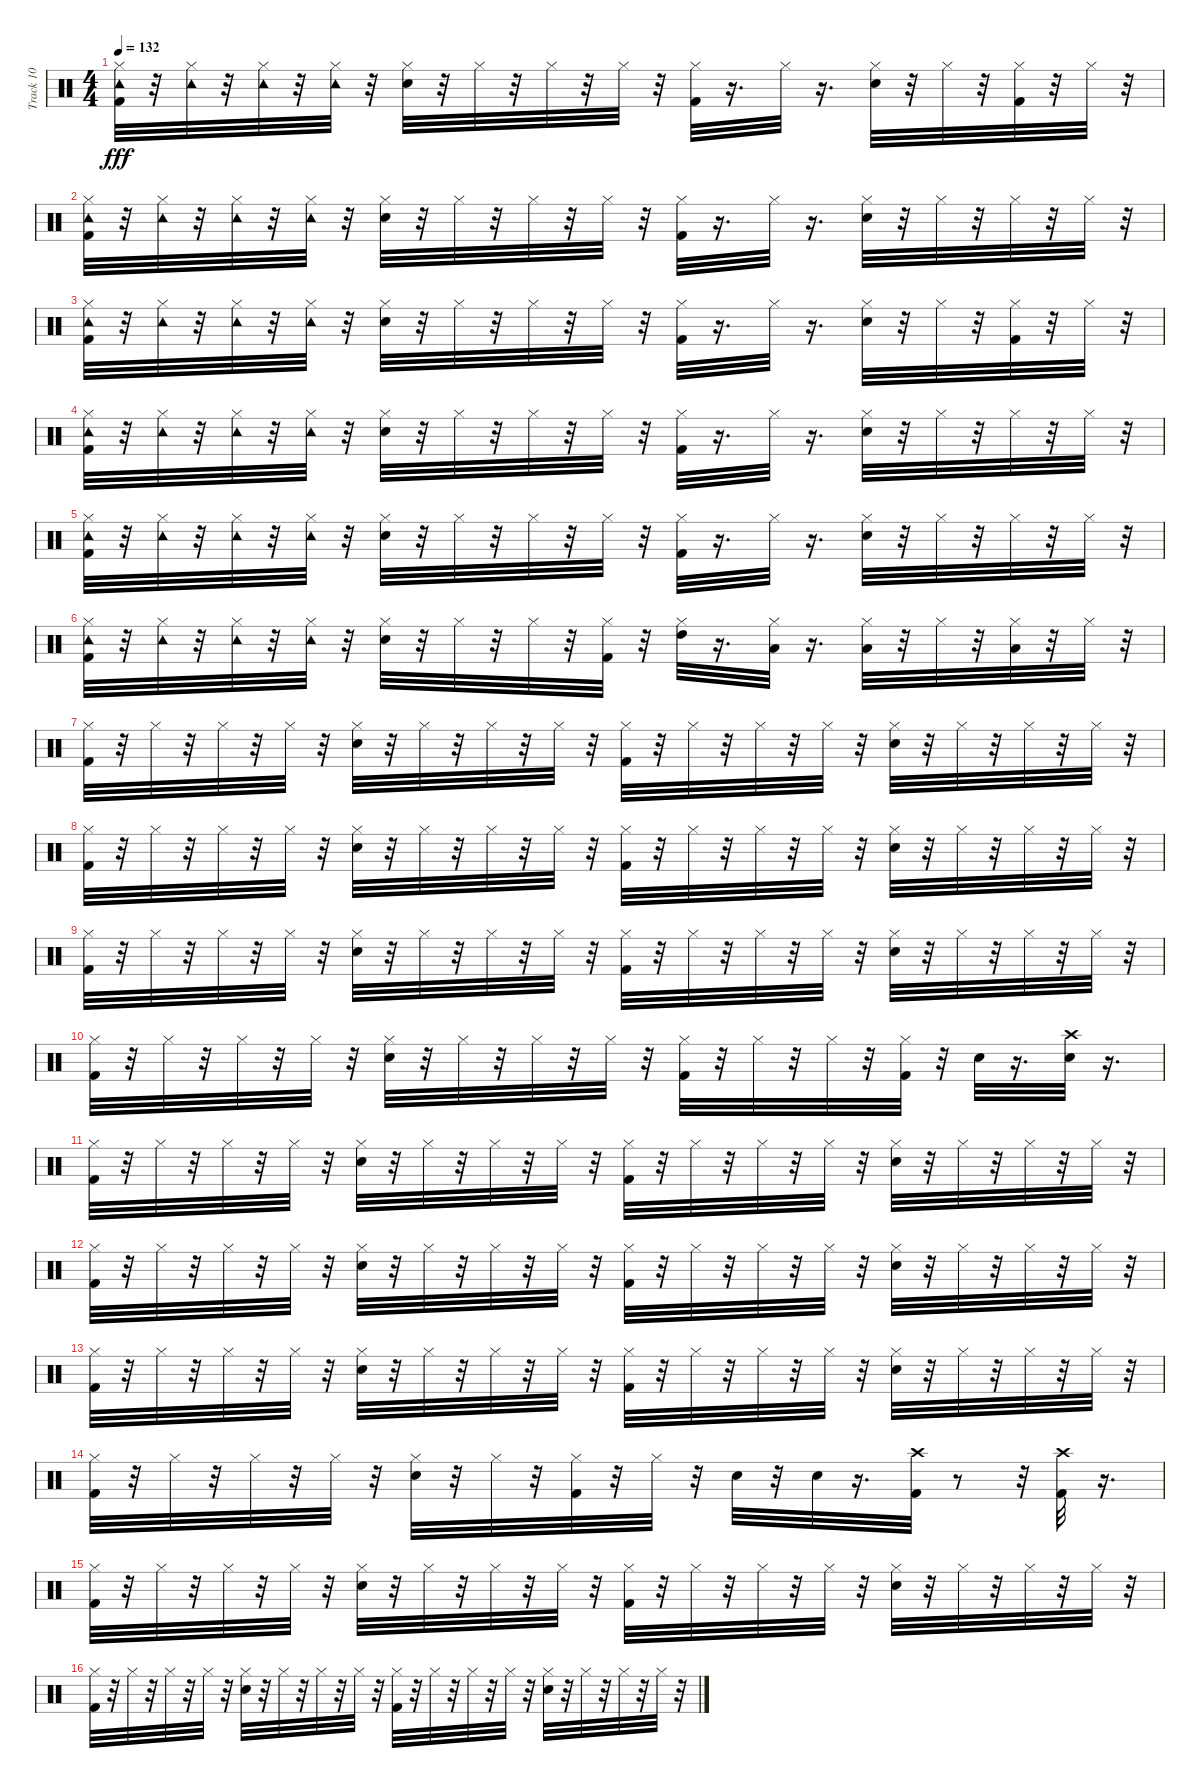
\track ("Track 10" "Track 10") {instrument percussion}
\staff {score}
\articulation defaults
\ts (4 4)
\tempo 132
\clef neutral
\ks c
("Tambourine (hit)" "Kick (hit) 2" "Hi-Hat (closed)").32{dy fff} r.32 ("Tambourine (hit)" "Hi-Hat (closed)").32 r.32 ("Tambourine (hit)" "Hi-Hat (closed)").32 r.32 ("Tambourine (hit)" "Hi-Hat (closed)").32 r.32 ("Snare (hit) 2" "Hi-Hat (closed)").32 r.32 "Hi-Hat (closed)".32 r.32 "Hi-Hat (closed)".32 r.32 "Hi-Hat (closed)".32 r.32 ("Kick (hit) 2" "Hi-Hat (closed)").32 r.16{d} "Hi-Hat (closed)".32 r.16{d} ("Snare (hit) 2" "Hi-Hat (closed)").32 r.32 "Hi-Hat (closed)".32 r.32 ("Kick (hit) 2" "Hi-Hat (closed)").32 r.32 "Hi-Hat (closed)".32 r.32 |
("Tambourine (hit)" "Kick (hit) 2" "Hi-Hat (closed)").32 r.32 ("Tambourine (hit)" "Hi-Hat (closed)").32 r.32 ("Tambourine (hit)" "Hi-Hat (closed)").32 r.32 ("Tambourine (hit)" "Hi-Hat (closed)").32 r.32 ("Snare (hit) 2" "Hi-Hat (closed)").32 r.32 "Hi-Hat (closed)".32 r.32 "Hi-Hat (closed)".32 r.32 "Hi-Hat (closed)".32 r.32 ("Kick (hit) 2" "Hi-Hat (closed)").32 r.16{d} "Hi-Hat (closed)".32 r.16{d} ("Snare (hit) 2" "Hi-Hat (closed)").32 r.32 "Hi-Hat (closed)".32 r.32 "Hi-Hat (closed)".32 r.32 "Hi-Hat (closed)".32 r.32 |
("Tambourine (hit)" "Kick (hit) 2" "Hi-Hat (closed)").32 r.32 ("Tambourine (hit)" "Hi-Hat (closed)").32 r.32 ("Tambourine (hit)" "Hi-Hat (closed)").32 r.32 ("Tambourine (hit)" "Hi-Hat (closed)").32 r.32 ("Snare (hit) 2" "Hi-Hat (closed)").32 r.32 "Hi-Hat (closed)".32 r.32 "Hi-Hat (closed)".32 r.32 "Hi-Hat (closed)".32 r.32 ("Kick (hit) 2" "Hi-Hat (closed)").32 r.16{d} "Hi-Hat (closed)".32 r.16{d} ("Snare (hit) 2" "Hi-Hat (closed)").32 r.32 "Hi-Hat (closed)".32 r.32 ("Kick (hit) 2" "Hi-Hat (closed)").32 r.32 "Hi-Hat (closed)".32 r.32 |
("Tambourine (hit)" "Kick (hit) 2" "Hi-Hat (closed)").32 r.32 ("Tambourine (hit)" "Hi-Hat (closed)").32 r.32 ("Tambourine (hit)" "Hi-Hat (closed)").32 r.32 ("Tambourine (hit)" "Hi-Hat (closed)").32 r.32 ("Snare (hit) 2" "Hi-Hat (closed)").32 r.32 "Hi-Hat (closed)".32 r.32 "Hi-Hat (closed)".32 r.32 "Hi-Hat (closed)".32 r.32 ("Kick (hit) 2" "Hi-Hat (closed)").32 r.16{d} "Hi-Hat (closed)".32 r.16{d} ("Snare (hit) 2" "Hi-Hat (closed)").32 r.32 "Hi-Hat (closed)".32 r.32 "Hi-Hat (closed)".32 r.32 "Hi-Hat (closed)".32 r.32 |
("Tambourine (hit)" "Kick (hit) 2" "Hi-Hat (closed)").32 r.32 ("Tambourine (hit)" "Hi-Hat (closed)").32 r.32 ("Tambourine (hit)" "Hi-Hat (closed)").32 r.32 ("Tambourine (hit)" "Hi-Hat (closed)").32 r.32 ("Snare (hit) 2" "Hi-Hat (closed)").32 r.32 "Hi-Hat (closed)".32 r.32 "Hi-Hat (closed)".32 r.32 "Hi-Hat (closed)".32 r.32 ("Kick (hit) 2" "Hi-Hat (closed)").32 r.16{d} "Hi-Hat (closed)".32 r.16{d} ("Snare (hit) 2" "Hi-Hat (closed)").32 r.32 "Hi-Hat (closed)".32 r.32 "Hi-Hat (closed)".32 r.32 "Hi-Hat (closed)".32 r.32 |
("Tambourine (hit)" "Kick (hit) 2" "Hi-Hat (closed)").32 r.32 ("Tambourine (hit)" "Hi-Hat (closed)").32 r.32 ("Tambourine (hit)" "Hi-Hat (closed)").32 r.32 ("Tambourine (hit)" "Hi-Hat (closed)").32 r.32 ("Snare (hit) 2" "Hi-Hat (closed)").32 r.32 "Hi-Hat (closed)".32 r.32 "Hi-Hat (closed)".32 r.32 ("Kick (hit) 2" "Hi-Hat (closed)").32 r.32 ("High Tom (hit)" "Hi-Hat (closed)").32 r.16{d} ("Low Tom (hit)" "Hi-Hat (closed)").32 r.16{d} ("Low Tom (hit)" "Hi-Hat (closed)").32 r.32 "Hi-Hat (closed)".32 r.32 ("Low Floor Tom (hit)" "Hi-Hat (closed)").32 r.32 "Hi-Hat (closed)".32 r.32 |
("Kick (hit) 2" "Hi-Hat (closed)").32 r.32 "Hi-Hat (closed)".32 r.32 "Hi-Hat (closed)".32 r.32 "Hi-Hat (closed)".32 r.32 ("Snare (hit) 2" "Hi-Hat (closed)").32 r.32 "Hi-Hat (closed)".32 r.32 "Hi-Hat (closed)".32 r.32 "Hi-Hat (closed)".32 r.32 ("Kick (hit) 2" "Hi-Hat (closed)").32 r.32 "Hi-Hat (closed)".32 r.32 "Hi-Hat (closed)".32 r.32 "Hi-Hat (closed)".32 r.32 ("Snare (hit) 2" "Hi-Hat (closed)").32 r.32 "Hi-Hat (closed)".32 r.32 "Hi-Hat (closed)".32 r.32 "Hi-Hat (closed)".32 r.32 |
("Kick (hit) 2" "Hi-Hat (closed)").32 r.32 "Hi-Hat (closed)".32 r.32 "Hi-Hat (closed)".32 r.32 "Hi-Hat (closed)".32 r.32 ("Snare (hit) 2" "Hi-Hat (closed)").32 r.32 "Hi-Hat (closed)".32 r.32 "Hi-Hat (closed)".32 r.32 "Hi-Hat (closed)".32 r.32 ("Kick (hit) 2" "Hi-Hat (closed)").32 r.32 "Hi-Hat (closed)".32 r.32 "Hi-Hat (closed)".32 r.32 "Hi-Hat (closed)".32 r.32 ("Snare (hit) 2" "Hi-Hat (closed)").32 r.32 "Hi-Hat (closed)".32 r.32 "Hi-Hat (closed)".32 r.32 "Hi-Hat (closed)".32 r.32 |
("Kick (hit) 2" "Hi-Hat (closed)").32 r.32 "Hi-Hat (closed)".32 r.32 "Hi-Hat (closed)".32 r.32 "Hi-Hat (closed)".32 r.32 ("Snare (hit) 2" "Hi-Hat (closed)").32 r.32 "Hi-Hat (closed)".32 r.32 "Hi-Hat (closed)".32 r.32 "Hi-Hat (closed)".32 r.32 ("Kick (hit) 2" "Hi-Hat (closed)").32 r.32 "Hi-Hat (closed)".32 r.32 "Hi-Hat (closed)".32 r.32 "Hi-Hat (closed)".32 r.32 ("Snare (hit) 2" "Hi-Hat (closed)").32 r.32 "Hi-Hat (closed)".32 r.32 "Hi-Hat (closed)".32 r.32 "Hi-Hat (closed)".32 r.32 |
("Kick (hit) 2" "Hi-Hat (closed)").32 r.32 "Hi-Hat (closed)".32 r.32 "Hi-Hat (closed)".32 r.32 "Hi-Hat (closed)".32 r.32 ("Snare (hit) 2" "Hi-Hat (closed)").32 r.32 "Hi-Hat (closed)".32 r.32 "Hi-Hat (closed)".32 r.32 "Hi-Hat (closed)".32 r.32 ("Kick (hit) 2" "Hi-Hat (closed)").32 r.32 "Hi-Hat (closed)".32 r.32 "Hi-Hat (closed)".32 r.32 ("Kick (hit) 2" "Hi-Hat (closed)").32 r.32 "Snare (hit) 2".32 r.16{d} ("Crash high (hit)" "Snare (hit) 2").32 r.16{d} |
("Kick (hit) 2" "Hi-Hat (closed)").32 r.32 "Hi-Hat (closed)".32 r.32 "Hi-Hat (closed)".32 r.32 "Hi-Hat (closed)".32 r.32 ("Snare (hit) 2" "Hi-Hat (closed)").32 r.32 "Hi-Hat (closed)".32 r.32 "Hi-Hat (closed)".32 r.32 "Hi-Hat (closed)".32 r.32 ("Kick (hit) 2" "Hi-Hat (closed)").32 r.32 "Hi-Hat (closed)".32 r.32 "Hi-Hat (closed)".32 r.32 "Hi-Hat (closed)".32 r.32 ("Snare (hit) 2" "Hi-Hat (closed)").32 r.32 "Hi-Hat (closed)".32 r.32 "Hi-Hat (closed)".32 r.32 "Hi-Hat (closed)".32 r.32 |
("Kick (hit) 2" "Hi-Hat (closed)").32 r.32 "Hi-Hat (closed)".32 r.32 "Hi-Hat (closed)".32 r.32 "Hi-Hat (closed)".32 r.32 ("Snare (hit) 2" "Hi-Hat (closed)").32 r.32 "Hi-Hat (closed)".32 r.32 "Hi-Hat (closed)".32 r.32 "Hi-Hat (closed)".32 r.32 ("Kick (hit) 2" "Hi-Hat (closed)").32 r.32 "Hi-Hat (closed)".32 r.32 "Hi-Hat (closed)".32 r.32 "Hi-Hat (closed)".32 r.32 ("Snare (hit) 2" "Hi-Hat (closed)").32 r.32 "Hi-Hat (closed)".32 r.32 "Hi-Hat (closed)".32 r.32 "Hi-Hat (closed)".32 r.32 |
("Kick (hit) 2" "Hi-Hat (closed)").32 r.32 "Hi-Hat (closed)".32 r.32 "Hi-Hat (closed)".32 r.32 "Hi-Hat (closed)".32 r.32 ("Snare (hit) 2" "Hi-Hat (closed)").32 r.32 "Hi-Hat (closed)".32 r.32 "Hi-Hat (closed)".32 r.32 "Hi-Hat (closed)".32 r.32 ("Kick (hit) 2" "Hi-Hat (closed)").32 r.32 "Hi-Hat (closed)".32 r.32 "Hi-Hat (closed)".32 r.32 "Hi-Hat (closed)".32 r.32 ("Snare (hit) 2" "Hi-Hat (closed)").32 r.32 "Hi-Hat (closed)".32 r.32 "Hi-Hat (closed)".32 r.32 "Hi-Hat (closed)".32 r.32 |
("Kick (hit) 2" "Hi-Hat (closed)").32 r.32 "Hi-Hat (closed)".32 r.32 "Hi-Hat (closed)".32 r.32 "Hi-Hat (closed)".32 r.32 ("Snare (hit) 2" "Hi-Hat (closed)").32 r.32 "Hi-Hat (closed)".32 r.32 ("Kick (hit) 2" "Hi-Hat (closed)").32 r.32 "Hi-Hat (closed)".32 r.32 "Snare (hit) 2".32 r.32 "Snare (hit) 2".32 r.16{d} ("Kick (hit) 2" "Crash high (hit)").32 r.8 r.32 ("Kick (hit) 2" "Crash high (hit)").32 r.16{d} |
("Kick (hit) 2" "Hi-Hat (closed)").32 r.32 "Hi-Hat (closed)".32 r.32 "Hi-Hat (closed)".32 r.32 "Hi-Hat (closed)".32 r.32 ("Snare (hit) 2" "Hi-Hat (closed)").32 r.32 "Hi-Hat (closed)".32 r.32 "Hi-Hat (closed)".32 r.32 "Hi-Hat (closed)".32 r.32 ("Kick (hit) 2" "Hi-Hat (closed)").32 r.32 "Hi-Hat (closed)".32 r.32 "Hi-Hat (closed)".32 r.32 "Hi-Hat (closed)".32 r.32 ("Snare (hit) 2" "Hi-Hat (closed)").32 r.32 "Hi-Hat (closed)".32 r.32 "Hi-Hat (closed)".32 r.32 "Hi-Hat (closed)".32 r.32 |
("Kick (hit) 2" "Hi-Hat (closed)").32 r.32 "Hi-Hat (closed)".32 r.32 "Hi-Hat (closed)".32 r.32 "Hi-Hat (closed)".32 r.32 ("Snare (hit) 2" "Hi-Hat (closed)").32 r.32 "Hi-Hat (closed)".32 r.32 "Hi-Hat (closed)".32 r.32 "Hi-Hat (closed)".32 r.32 ("Kick (hit) 2" "Hi-Hat (closed)").32 r.32 "Hi-Hat (closed)".32 r.32 "Hi-Hat (closed)".32 r.32 "Hi-Hat (closed)".32 r.32 ("Snare (hit) 2" "Hi-Hat (closed)").32 r.32 "Hi-Hat (closed)".32 r.32 "Hi-Hat (closed)".32 r.32 "Hi-Hat (closed)".32 r.32
